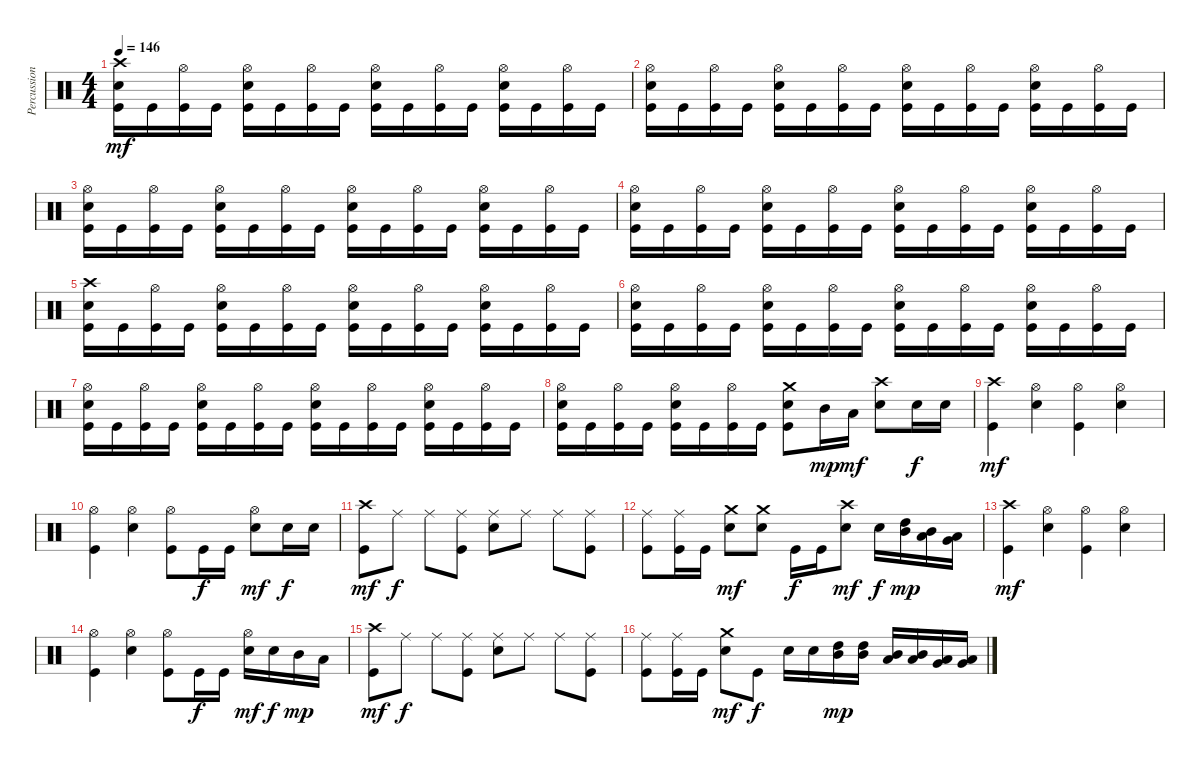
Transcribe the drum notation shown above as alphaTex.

\track ("Percussions" "Percussion") {instrument percussion}
\staff {score}
\articulation defaults
\ts (4 4)
\tempo 146
\clef neutral
\ks c
("Kick (hit)" "Electric Snare (hit)" "Crash high (hit)").16{dy mf} "Kick (hit)".16 ("Kick (hit)" "Hi-Hat (open)").16 "Kick (hit)".16 ("Kick (hit)" "Electric Snare (hit)" "Hi-Hat (open)").16 "Kick (hit)".16 ("Kick (hit)" "Hi-Hat (open)").16 "Kick (hit)".16 ("Kick (hit)" "Electric Snare (hit)" "Hi-Hat (open)").16 "Kick (hit)".16 ("Kick (hit)" "Hi-Hat (open)").16 "Kick (hit)".16 ("Kick (hit)" "Electric Snare (hit)" "Hi-Hat (open)").16 "Kick (hit)".16 ("Kick (hit)" "Hi-Hat (open)").16 "Kick (hit)".16 |
("Kick (hit)" "Electric Snare (hit)" "Hi-Hat (open)").16 "Kick (hit)".16 ("Kick (hit)" "Hi-Hat (open)").16 "Kick (hit)".16 ("Kick (hit)" "Electric Snare (hit)" "Hi-Hat (open)").16 "Kick (hit)".16 ("Kick (hit)" "Hi-Hat (open)").16 "Kick (hit)".16 ("Kick (hit)" "Electric Snare (hit)" "Hi-Hat (open)").16 "Kick (hit)".16 ("Kick (hit)" "Hi-Hat (open)").16 "Kick (hit)".16 ("Kick (hit)" "Electric Snare (hit)" "Hi-Hat (open)").16 "Kick (hit)".16 ("Kick (hit)" "Hi-Hat (open)").16 "Kick (hit)".16 |
("Kick (hit)" "Electric Snare (hit)" "Hi-Hat (open)").16 "Kick (hit)".16 ("Kick (hit)" "Hi-Hat (open)").16 "Kick (hit)".16 ("Kick (hit)" "Electric Snare (hit)" "Hi-Hat (open)").16 "Kick (hit)".16 ("Kick (hit)" "Hi-Hat (open)").16 "Kick (hit)".16 ("Kick (hit)" "Electric Snare (hit)" "Hi-Hat (open)").16 "Kick (hit)".16 ("Kick (hit)" "Hi-Hat (open)").16 "Kick (hit)".16 ("Kick (hit)" "Electric Snare (hit)" "Hi-Hat (open)").16 "Kick (hit)".16 ("Kick (hit)" "Hi-Hat (open)").16 "Kick (hit)".16 |
("Kick (hit)" "Electric Snare (hit)" "Hi-Hat (open)").16 "Kick (hit)".16 ("Kick (hit)" "Hi-Hat (open)").16 "Kick (hit)".16 ("Kick (hit)" "Electric Snare (hit)" "Hi-Hat (open)").16 "Kick (hit)".16 ("Kick (hit)" "Hi-Hat (open)").16 "Kick (hit)".16 ("Kick (hit)" "Electric Snare (hit)" "Hi-Hat (open)").16 "Kick (hit)".16 ("Kick (hit)" "Hi-Hat (open)").16 "Kick (hit)".16 ("Kick (hit)" "Electric Snare (hit)" "Hi-Hat (open)").16 "Kick (hit)".16 ("Kick (hit)" "Hi-Hat (open)").16 "Kick (hit)".16 |
("Kick (hit)" "Electric Snare (hit)" "Crash high (hit)").16 "Kick (hit)".16 ("Kick (hit)" "Hi-Hat (open)").16 "Kick (hit)".16 ("Kick (hit)" "Electric Snare (hit)" "Hi-Hat (open)").16 "Kick (hit)".16 ("Kick (hit)" "Hi-Hat (open)").16 "Kick (hit)".16 ("Kick (hit)" "Electric Snare (hit)" "Hi-Hat (open)").16 "Kick (hit)".16 ("Kick (hit)" "Hi-Hat (open)").16 "Kick (hit)".16 ("Kick (hit)" "Electric Snare (hit)" "Hi-Hat (open)").16 "Kick (hit)".16 ("Kick (hit)" "Hi-Hat (open)").16 "Kick (hit)".16 |
("Kick (hit)" "Electric Snare (hit)" "Hi-Hat (open)").16 "Kick (hit)".16 ("Kick (hit)" "Hi-Hat (open)").16 "Kick (hit)".16 ("Kick (hit)" "Electric Snare (hit)" "Hi-Hat (open)").16 "Kick (hit)".16 ("Kick (hit)" "Hi-Hat (open)").16 "Kick (hit)".16 ("Kick (hit)" "Electric Snare (hit)" "Hi-Hat (open)").16 "Kick (hit)".16 ("Kick (hit)" "Hi-Hat (open)").16 "Kick (hit)".16 ("Kick (hit)" "Electric Snare (hit)" "Hi-Hat (open)").16 "Kick (hit)".16 ("Kick (hit)" "Hi-Hat (open)").16 "Kick (hit)".16 |
("Kick (hit)" "Electric Snare (hit)" "Hi-Hat (open)").16 "Kick (hit)".16 ("Kick (hit)" "Hi-Hat (open)").16 "Kick (hit)".16 ("Kick (hit)" "Electric Snare (hit)" "Hi-Hat (open)").16 "Kick (hit)".16 ("Kick (hit)" "Hi-Hat (open)").16 "Kick (hit)".16 ("Kick (hit)" "Electric Snare (hit)" "Hi-Hat (open)").16 "Kick (hit)".16 ("Kick (hit)" "Hi-Hat (open)").16 "Kick (hit)".16 ("Kick (hit)" "Electric Snare (hit)" "Hi-Hat (open)").16 "Kick (hit)".16 ("Kick (hit)" "Hi-Hat (open)").16 "Kick (hit)".16 |
("Kick (hit)" "Electric Snare (hit)" "Hi-Hat (open)").16 "Kick (hit)".16 ("Kick (hit)" "Hi-Hat (open)").16 "Kick (hit)".16 ("Kick (hit)" "Electric Snare (hit)" "Hi-Hat (open)").16 "Kick (hit)".16 ("Kick (hit)" "Hi-Hat (open)").16 "Kick (hit)".16 ("Kick (hit)" "Electric Snare (hit)" "Crash medium (hit)").8 "Mid Tom (hit)".16{dy mp} "Low Tom (hit)".16{dy mf} ("Electric Snare (hit)" "Crash high (hit)").8 "Electric Snare (hit)".16{dy f} "Electric Snare (hit)".16 |
("Kick (hit)" "Crash high (hit)").4{dy mf} ("Electric Snare (hit)" "Hi-Hat (open)").4 ("Kick (hit)" "Hi-Hat (open)").4 ("Electric Snare (hit)" "Hi-Hat (open)").4 |
("Kick (hit)" "Hi-Hat (open)").4 ("Electric Snare (hit)" "Hi-Hat (open)").4 ("Kick (hit)" "Hi-Hat (open)").8 "Kick (hit)".16{dy f} "Kick (hit)".16 ("Electric Snare (hit)" "Hi-Hat (open)").8{dy mf} "Electric Snare (hit)".16{dy f} "Electric Snare (hit)".16 |
("Kick (hit)" "Crash high (hit)").8{dy mf} "Ride (middle)".8{dy f} "Ride (middle)".8 ("Kick (hit)" "Ride (middle)").8 ("Electric Snare (hit)" "Ride (middle)").8 "Ride (middle)".8 "Ride (middle)".8 ("Kick (hit)" "Ride (middle)").8 |
("Kick (hit)" "Ride (middle)").8 ("Kick (hit)" "Ride (middle)").16 "Kick (hit)".16 ("Electric Snare (hit)" "Crash medium (hit)").8{dy mf} ("Electric Snare (hit)" "Crash medium (hit)").8 "Kick (hit)".16{dy f} "Kick (hit)".16 ("Electric Snare (hit)" "Crash high (hit)").8{dy mf} "Electric Snare (hit)".16{dy f} ("Mid Tom (hit)" "High Tom (hit)").16{dy mp} ("Low Tom (hit)" "Mid Tom (hit)").16 ("Very Low Tom (hit)" "Low Tom (hit)").16 |
("Kick (hit)" "Crash high (hit)").4{dy mf} ("Electric Snare (hit)" "Hi-Hat (open)").4 ("Kick (hit)" "Hi-Hat (open)").4 ("Electric Snare (hit)" "Hi-Hat (open)").4 |
("Kick (hit)" "Hi-Hat (open)").4 ("Electric Snare (hit)" "Hi-Hat (open)").4 ("Kick (hit)" "Hi-Hat (open)").8 "Kick (hit)".16{dy f} "Kick (hit)".16 ("Electric Snare (hit)" "Hi-Hat (open)").16{dy mf} "Electric Snare (hit)".16{dy f} "Mid Tom (hit)".16{dy mp} "Low Tom (hit)".16 |
("Kick (hit)" "Crash high (hit)").8{dy mf} "Ride (middle)".8{dy f} "Ride (middle)".8 ("Kick (hit)" "Ride (middle)").8 ("Electric Snare (hit)" "Ride (middle)").8 "Ride (middle)".8 "Ride (middle)".8 ("Kick (hit)" "Ride (middle)").8 |
("Kick (hit)" "Ride (middle)").8 ("Kick (hit)" "Ride (middle)").16 "Kick (hit)".16 ("Electric Snare (hit)" "Crash medium (hit)").8{dy mf} "Kick (hit)".8{dy f} "Electric Snare (hit)".16 "Electric Snare (hit)".16 ("High Tom (hit)" "Mid Tom (hit)").16{dy mp} ("High Tom (hit)" "Mid Tom (hit)").16 ("Mid Tom (hit)" "Low Tom (hit)").16 ("Mid Tom (hit)" "Low Tom (hit)").16 ("Low Tom (hit)" "Very Low Tom (hit)").16 ("Low Tom (hit)" "Very Low Tom (hit)").16
